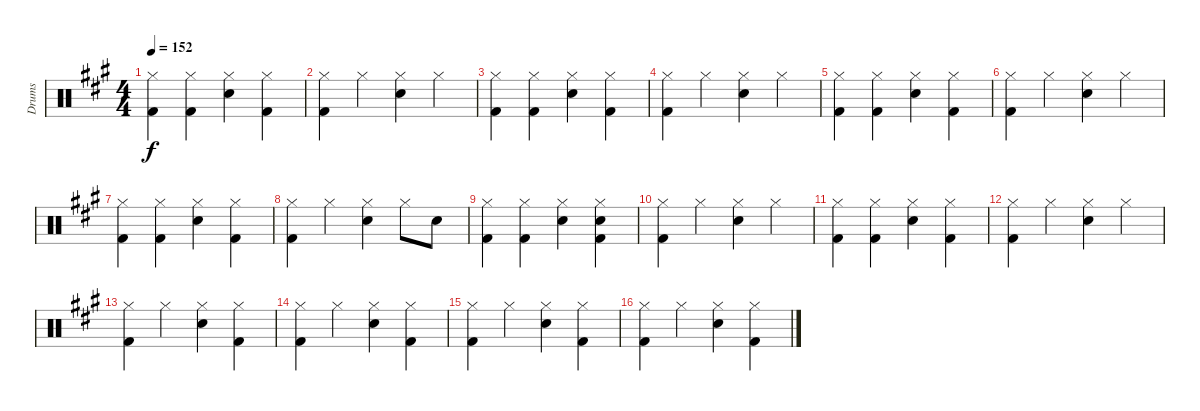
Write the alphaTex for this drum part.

\track ("Drums" "Drums") {instrument percussion}
\staff {score}
\articulation defaults
\ts (4 4)
\tempo 152
\clef neutral
\ks a
("Hi-Hat (closed)" "Kick (hit) 2").4{dy f} ("Hi-Hat (closed)" "Kick (hit) 2").4 ("Hi-Hat (closed)" "Electric Snare (hit)").4 ("Hi-Hat (closed)" "Kick (hit) 2").4 |
("Hi-Hat (closed)" "Kick (hit) 2").4 "Hi-Hat (closed)".4 ("Hi-Hat (closed)" "Electric Snare (hit)").4 "Hi-Hat (closed)".4 |
("Hi-Hat (closed)" "Kick (hit) 2").4 ("Hi-Hat (closed)" "Kick (hit) 2").4 ("Hi-Hat (closed)" "Electric Snare (hit)").4 ("Hi-Hat (closed)" "Kick (hit) 2").4 |
("Hi-Hat (closed)" "Kick (hit) 2").4 "Hi-Hat (closed)".4 ("Hi-Hat (closed)" "Electric Snare (hit)").4 "Hi-Hat (closed)".4 |
("Hi-Hat (closed)" "Kick (hit) 2").4 ("Hi-Hat (closed)" "Kick (hit) 2").4 ("Hi-Hat (closed)" "Electric Snare (hit)").4 ("Hi-Hat (closed)" "Kick (hit) 2").4 |
("Hi-Hat (closed)" "Kick (hit) 2").4 "Hi-Hat (closed)".4 ("Hi-Hat (closed)" "Electric Snare (hit)").4 "Hi-Hat (closed)".4 |
("Hi-Hat (closed)" "Kick (hit) 2").4 ("Hi-Hat (closed)" "Kick (hit) 2").4 ("Hi-Hat (closed)" "Electric Snare (hit)").4 ("Hi-Hat (closed)" "Kick (hit) 2").4 |
("Hi-Hat (closed)" "Kick (hit) 2").4 "Hi-Hat (closed)".4 ("Hi-Hat (closed)" "Electric Snare (hit)").4 "Hi-Hat (closed)".8 "Electric Snare (hit)".8 |
("Hi-Hat (closed)" "Kick (hit) 2").4 ("Hi-Hat (closed)" "Kick (hit) 2").4 ("Hi-Hat (closed)" "Electric Snare (hit)").4 ("Hi-Hat (closed)" "Electric Snare (hit)" "Kick (hit) 2").4 |
("Hi-Hat (closed)" "Kick (hit) 2").4 "Hi-Hat (closed)".4 ("Hi-Hat (closed)" "Electric Snare (hit)").4 "Hi-Hat (closed)".4 |
("Hi-Hat (closed)" "Kick (hit) 2").4 ("Hi-Hat (closed)" "Kick (hit) 2").4 ("Hi-Hat (closed)" "Electric Snare (hit)").4 ("Hi-Hat (closed)" "Kick (hit) 2").4 |
("Hi-Hat (closed)" "Kick (hit) 2").4 "Hi-Hat (closed)".4 ("Hi-Hat (closed)" "Electric Snare (hit)").4 "Hi-Hat (closed)".4 |
("Hi-Hat (closed)" "Kick (hit) 2").4 "Hi-Hat (closed)".4 ("Hi-Hat (closed)" "Electric Snare (hit)").4 ("Hi-Hat (closed)" "Kick (hit) 2").4 |
("Hi-Hat (closed)" "Kick (hit) 2").4 "Hi-Hat (closed)".4 ("Hi-Hat (closed)" "Electric Snare (hit)").4 ("Hi-Hat (closed)" "Kick (hit) 2").4 |
("Hi-Hat (closed)" "Kick (hit) 2").4 "Hi-Hat (closed)".4 ("Hi-Hat (closed)" "Electric Snare (hit)").4 ("Hi-Hat (closed)" "Kick (hit) 2").4 |
("Hi-Hat (closed)" "Kick (hit) 2").4 "Hi-Hat (closed)".4 ("Hi-Hat (closed)" "Electric Snare (hit)").4 ("Hi-Hat (closed)" "Kick (hit) 2").4
